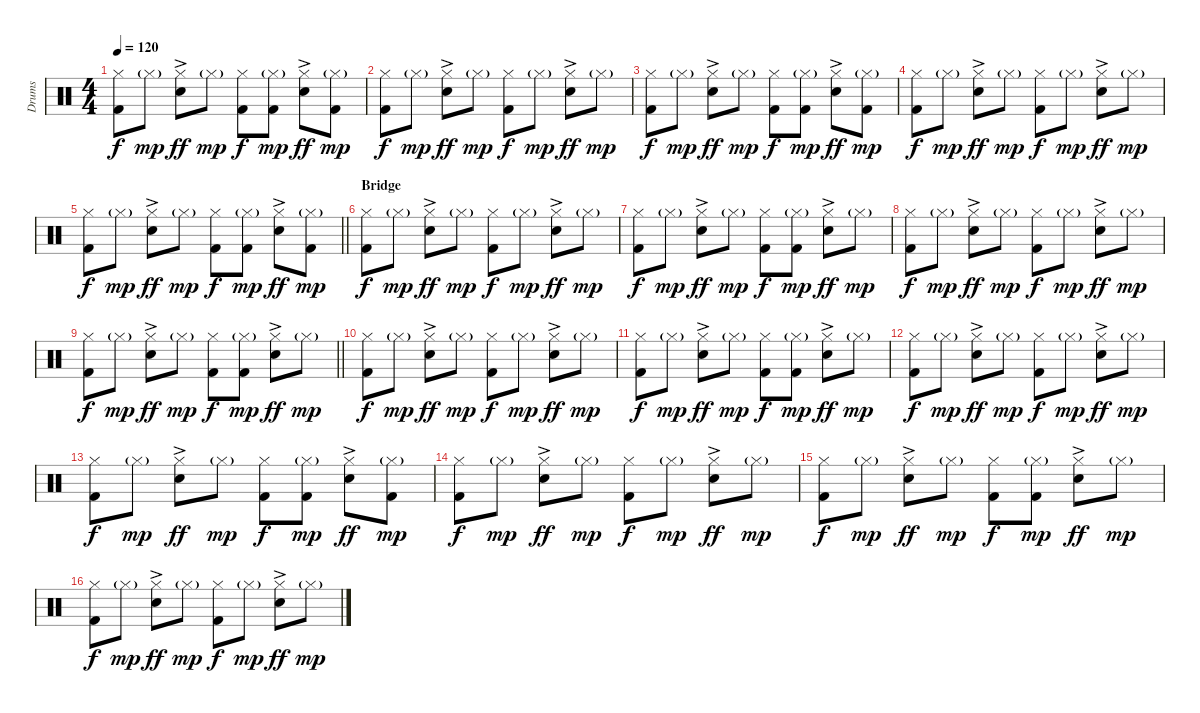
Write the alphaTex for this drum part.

\track ("Drums" "Drums") {instrument percussion}
\staff {score}
\articulation defaults
\ts (4 4)
\tempo 120
\clef neutral
\ks c
("Hi-Hat (closed)" "Kick (hit) 2").8{dy f} "Hi-Hat (closed)"{g}.8{dy mp} ("Hi-Hat (closed)" "Snare (hit) 2"{ac}).8{dy ff} "Hi-Hat (closed)"{g}.8{dy mp} ("Hi-Hat (closed)" "Kick (hit) 2").8{dy f} ("Hi-Hat (closed)"{g} "Kick (hit) 2").8{dy mp} ("Hi-Hat (closed)" "Snare (hit) 2"{ac}).8{dy ff} ("Hi-Hat (closed)"{g} "Kick (hit) 2").8{dy mp} |
("Hi-Hat (closed)" "Kick (hit) 2").8{dy f} "Hi-Hat (closed)"{g}.8{dy mp} ("Hi-Hat (closed)" "Snare (hit) 2"{ac}).8{dy ff} "Hi-Hat (closed)"{g}.8{dy mp} ("Hi-Hat (closed)" "Kick (hit) 2").8{dy f} "Hi-Hat (closed)"{g}.8{dy mp} ("Hi-Hat (closed)" "Snare (hit) 2"{ac}).8{dy ff} "Hi-Hat (closed)"{g}.8{dy mp} |
("Hi-Hat (closed)" "Kick (hit) 2").8{dy f} "Hi-Hat (closed)"{g}.8{dy mp} ("Hi-Hat (closed)" "Snare (hit) 2"{ac}).8{dy ff} "Hi-Hat (closed)"{g}.8{dy mp} ("Hi-Hat (closed)" "Kick (hit) 2").8{dy f} ("Hi-Hat (closed)"{g} "Kick (hit) 2").8{dy mp} ("Hi-Hat (closed)" "Snare (hit) 2"{ac}).8{dy ff} ("Hi-Hat (closed)"{g} "Kick (hit) 2").8{dy mp} |
("Hi-Hat (closed)" "Kick (hit) 2").8{dy f} "Hi-Hat (closed)"{g}.8{dy mp} ("Hi-Hat (closed)" "Snare (hit) 2"{ac}).8{dy ff} "Hi-Hat (closed)"{g}.8{dy mp} ("Hi-Hat (closed)" "Kick (hit) 2").8{dy f} "Hi-Hat (closed)"{g}.8{dy mp} ("Hi-Hat (closed)" "Snare (hit) 2"{ac}).8{dy ff} "Hi-Hat (closed)"{g}.8{dy mp} |
\barLineRight lightlight
("Hi-Hat (closed)" "Kick (hit) 2").8{dy f} "Hi-Hat (closed)"{g}.8{dy mp} ("Hi-Hat (closed)" "Snare (hit) 2"{ac}).8{dy ff} "Hi-Hat (closed)"{g}.8{dy mp} ("Hi-Hat (closed)" "Kick (hit) 2").8{dy f} ("Hi-Hat (closed)"{g} "Kick (hit) 2").8{dy mp} ("Hi-Hat (closed)" "Snare (hit) 2"{ac}).8{dy ff} ("Hi-Hat (closed)"{g} "Kick (hit) 2").8{dy mp} |
\section ("" "Bridge")
("Hi-Hat (closed)" "Kick (hit) 2").8{dy f} "Hi-Hat (closed)"{g}.8{dy mp} ("Hi-Hat (closed)" "Snare (hit) 2"{ac}).8{dy ff} "Hi-Hat (closed)"{g}.8{dy mp} ("Hi-Hat (closed)" "Kick (hit) 2").8{dy f} "Hi-Hat (closed)"{g}.8{dy mp} ("Hi-Hat (closed)" "Snare (hit) 2"{ac}).8{dy ff} "Hi-Hat (closed)"{g}.8{dy mp} |
("Hi-Hat (closed)" "Kick (hit) 2").8{dy f} "Hi-Hat (closed)"{g}.8{dy mp} ("Hi-Hat (closed)" "Snare (hit) 2"{ac}).8{dy ff} "Hi-Hat (closed)"{g}.8{dy mp} ("Hi-Hat (closed)" "Kick (hit) 2").8{dy f} ("Hi-Hat (closed)"{g} "Kick (hit) 2").8{dy mp} ("Hi-Hat (closed)" "Snare (hit) 2"{ac}).8{dy ff} "Hi-Hat (closed)"{g}.8{dy mp} |
("Hi-Hat (closed)" "Kick (hit) 2").8{dy f} "Hi-Hat (closed)"{g}.8{dy mp} ("Hi-Hat (closed)" "Snare (hit) 2"{ac}).8{dy ff} "Hi-Hat (closed)"{g}.8{dy mp} ("Hi-Hat (closed)" "Kick (hit) 2").8{dy f} "Hi-Hat (closed)"{g}.8{dy mp} ("Hi-Hat (closed)" "Snare (hit) 2"{ac}).8{dy ff} "Hi-Hat (closed)"{g}.8{dy mp} |
\barLineRight lightlight
("Hi-Hat (closed)" "Kick (hit) 2").8{dy f} "Hi-Hat (closed)"{g}.8{dy mp} ("Hi-Hat (closed)" "Snare (hit) 2"{ac}).8{dy ff} "Hi-Hat (closed)"{g}.8{dy mp} ("Hi-Hat (closed)" "Kick (hit) 2").8{dy f} ("Hi-Hat (closed)"{g} "Kick (hit) 2").8{dy mp} ("Hi-Hat (closed)" "Snare (hit) 2"{ac}).8{dy ff} "Hi-Hat (closed)"{g}.8{dy mp} |
("Hi-Hat (closed)" "Kick (hit) 2").8{dy f} "Hi-Hat (closed)"{g}.8{dy mp} ("Hi-Hat (closed)" "Snare (hit) 2"{ac}).8{dy ff} "Hi-Hat (closed)"{g}.8{dy mp} ("Hi-Hat (closed)" "Kick (hit) 2").8{dy f} "Hi-Hat (closed)"{g}.8{dy mp} ("Hi-Hat (closed)" "Snare (hit) 2"{ac}).8{dy ff} "Hi-Hat (closed)"{g}.8{dy mp} |
("Hi-Hat (closed)" "Kick (hit) 2").8{dy f} "Hi-Hat (closed)"{g}.8{dy mp} ("Hi-Hat (closed)" "Snare (hit) 2"{ac}).8{dy ff} "Hi-Hat (closed)"{g}.8{dy mp} ("Hi-Hat (closed)" "Kick (hit) 2").8{dy f} ("Hi-Hat (closed)"{g} "Kick (hit) 2").8{dy mp} ("Hi-Hat (closed)" "Snare (hit) 2"{ac}).8{dy ff} "Hi-Hat (closed)"{g}.8{dy mp} |
("Hi-Hat (closed)" "Kick (hit) 2").8{dy f} "Hi-Hat (closed)"{g}.8{dy mp} ("Hi-Hat (closed)" "Snare (hit) 2"{ac}).8{dy ff} "Hi-Hat (closed)"{g}.8{dy mp} ("Hi-Hat (closed)" "Kick (hit) 2").8{dy f} "Hi-Hat (closed)"{g}.8{dy mp} ("Hi-Hat (closed)" "Snare (hit) 2"{ac}).8{dy ff} "Hi-Hat (closed)"{g}.8{dy mp} |
("Hi-Hat (closed)" "Kick (hit) 2").8{dy f} "Hi-Hat (closed)"{g}.8{dy mp} ("Hi-Hat (closed)" "Snare (hit) 2"{ac}).8{dy ff} "Hi-Hat (closed)"{g}.8{dy mp} ("Hi-Hat (closed)" "Kick (hit) 2").8{dy f} ("Hi-Hat (closed)"{g} "Kick (hit) 2").8{dy mp} ("Hi-Hat (closed)" "Snare (hit) 2"{ac}).8{dy ff} ("Hi-Hat (closed)"{g} "Kick (hit) 2").8{dy mp} |
("Hi-Hat (closed)" "Kick (hit) 2").8{dy f} "Hi-Hat (closed)"{g}.8{dy mp} ("Hi-Hat (closed)" "Snare (hit) 2"{ac}).8{dy ff} "Hi-Hat (closed)"{g}.8{dy mp} ("Hi-Hat (closed)" "Kick (hit) 2").8{dy f} "Hi-Hat (closed)"{g}.8{dy mp} ("Hi-Hat (closed)" "Snare (hit) 2"{ac}).8{dy ff} "Hi-Hat (closed)"{g}.8{dy mp} |
("Hi-Hat (closed)" "Kick (hit) 2").8{dy f} "Hi-Hat (closed)"{g}.8{dy mp} ("Hi-Hat (closed)" "Snare (hit) 2"{ac}).8{dy ff} "Hi-Hat (closed)"{g}.8{dy mp} ("Hi-Hat (closed)" "Kick (hit) 2").8{dy f} ("Hi-Hat (closed)"{g} "Kick (hit) 2").8{dy mp} ("Hi-Hat (closed)" "Snare (hit) 2"{ac}).8{dy ff} "Hi-Hat (closed)"{g}.8{dy mp} |
("Hi-Hat (closed)" "Kick (hit) 2").8{dy f} "Hi-Hat (closed)"{g}.8{dy mp} ("Hi-Hat (closed)" "Snare (hit) 2"{ac}).8{dy ff} "Hi-Hat (closed)"{g}.8{dy mp} ("Hi-Hat (closed)" "Kick (hit) 2").8{dy f} "Hi-Hat (closed)"{g}.8{dy mp} ("Hi-Hat (closed)" "Snare (hit) 2"{ac}).8{dy ff} "Hi-Hat (closed)"{g}.8{dy mp}
